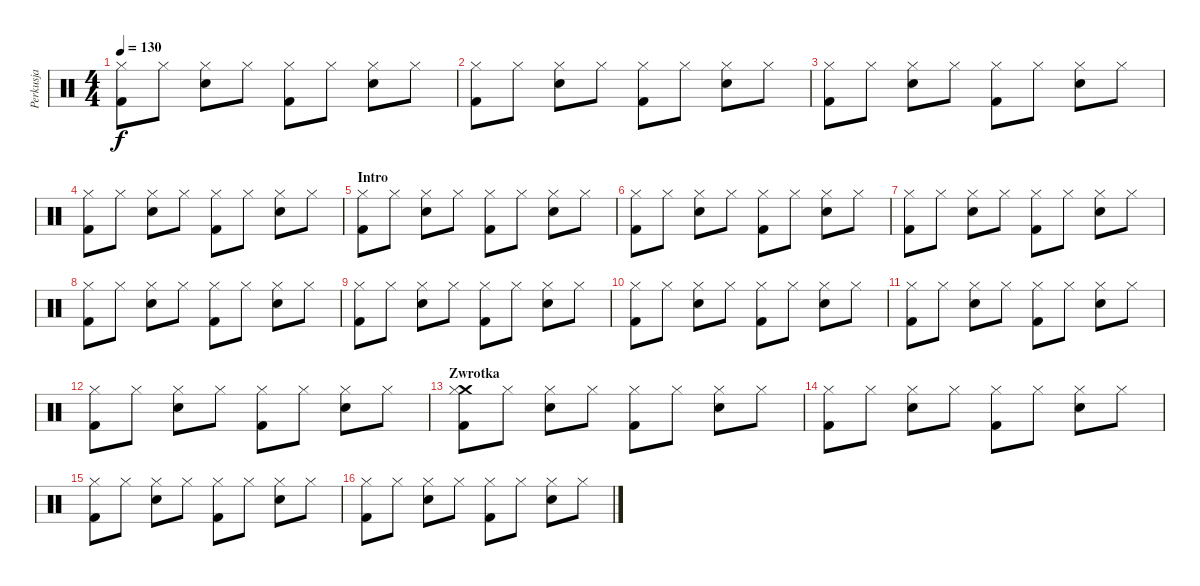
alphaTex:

\track ("Perkusja" "Perkusja") {instrument percussion}
\staff {score}
\articulation defaults
\ts (4 4)
\tempo 130
\clef neutral
\ks c
("Hi-Hat (closed)" "Kick (hit) 2").8{dy f} "Hi-Hat (closed)".8 ("Hi-Hat (closed)" "Electric Snare (hit)").8 "Hi-Hat (closed)".8 ("Hi-Hat (closed)" "Kick (hit) 2").8 "Hi-Hat (closed)".8 ("Hi-Hat (closed)" "Electric Snare (hit)").8 "Hi-Hat (closed)".8 |
("Hi-Hat (closed)" "Kick (hit) 2").8 "Hi-Hat (closed)".8 ("Hi-Hat (closed)" "Electric Snare (hit)").8 "Hi-Hat (closed)".8 ("Hi-Hat (closed)" "Kick (hit) 2").8 "Hi-Hat (closed)".8 ("Hi-Hat (closed)" "Electric Snare (hit)").8 "Hi-Hat (closed)".8 |
("Hi-Hat (closed)" "Kick (hit) 2").8 "Hi-Hat (closed)".8 ("Hi-Hat (closed)" "Electric Snare (hit)").8 "Hi-Hat (closed)".8 ("Hi-Hat (closed)" "Kick (hit) 2").8 "Hi-Hat (closed)".8 ("Hi-Hat (closed)" "Electric Snare (hit)").8 "Hi-Hat (closed)".8 |
("Hi-Hat (closed)" "Kick (hit) 2").8 "Hi-Hat (closed)".8 ("Hi-Hat (closed)" "Electric Snare (hit)").8 "Hi-Hat (closed)".8 ("Hi-Hat (closed)" "Kick (hit) 2").8 "Hi-Hat (closed)".8 ("Hi-Hat (closed)" "Electric Snare (hit)").8 "Hi-Hat (closed)".8 |
\section ("" "Intro")
("Hi-Hat (closed)" "Kick (hit) 2").8 "Hi-Hat (closed)".8 ("Hi-Hat (closed)" "Electric Snare (hit)").8 "Hi-Hat (closed)".8 ("Hi-Hat (closed)" "Kick (hit) 2").8 "Hi-Hat (closed)".8 ("Hi-Hat (closed)" "Electric Snare (hit)").8 "Hi-Hat (closed)".8 |
("Hi-Hat (closed)" "Kick (hit) 2").8 "Hi-Hat (closed)".8 ("Hi-Hat (closed)" "Electric Snare (hit)").8 "Hi-Hat (closed)".8 ("Hi-Hat (closed)" "Kick (hit) 2").8 "Hi-Hat (closed)".8 ("Hi-Hat (closed)" "Electric Snare (hit)").8 "Hi-Hat (closed)".8 |
("Hi-Hat (closed)" "Kick (hit) 2").8 "Hi-Hat (closed)".8 ("Hi-Hat (closed)" "Electric Snare (hit)").8 "Hi-Hat (closed)".8 ("Hi-Hat (closed)" "Kick (hit) 2").8 "Hi-Hat (closed)".8 ("Hi-Hat (closed)" "Electric Snare (hit)").8 "Hi-Hat (closed)".8 |
("Hi-Hat (closed)" "Kick (hit) 2").8 "Hi-Hat (closed)".8 ("Hi-Hat (closed)" "Electric Snare (hit)").8 "Hi-Hat (closed)".8 ("Hi-Hat (closed)" "Kick (hit) 2").8 "Hi-Hat (closed)".8 ("Hi-Hat (closed)" "Electric Snare (hit)").8 "Hi-Hat (closed)".8 |
("Hi-Hat (closed)" "Kick (hit) 2").8 "Hi-Hat (closed)".8 ("Hi-Hat (closed)" "Electric Snare (hit)").8 "Hi-Hat (closed)".8 ("Hi-Hat (closed)" "Kick (hit) 2").8 "Hi-Hat (closed)".8 ("Hi-Hat (closed)" "Electric Snare (hit)").8 "Hi-Hat (closed)".8 |
("Hi-Hat (closed)" "Kick (hit) 2").8 "Hi-Hat (closed)".8 ("Hi-Hat (closed)" "Electric Snare (hit)").8 "Hi-Hat (closed)".8 ("Hi-Hat (closed)" "Kick (hit) 2").8 "Hi-Hat (closed)".8 ("Hi-Hat (closed)" "Electric Snare (hit)").8 "Hi-Hat (closed)".8 |
("Hi-Hat (closed)" "Kick (hit) 2").8 "Hi-Hat (closed)".8 ("Hi-Hat (closed)" "Electric Snare (hit)").8 "Hi-Hat (closed)".8 ("Hi-Hat (closed)" "Kick (hit) 2").8 "Hi-Hat (closed)".8 ("Hi-Hat (closed)" "Electric Snare (hit)").8 "Hi-Hat (closed)".8 |
("Hi-Hat (closed)" "Kick (hit) 2").8 "Hi-Hat (closed)".8 ("Hi-Hat (closed)" "Electric Snare (hit)").8 "Hi-Hat (closed)".8 ("Hi-Hat (closed)" "Kick (hit) 2").8 "Hi-Hat (closed)".8 ("Hi-Hat (closed)" "Electric Snare (hit)").8 "Hi-Hat (closed)".8 |
\section ("" "Zwrotka")
("Crash medium (hit)" "Hi-Hat (closed)" "Kick (hit) 2").8 "Hi-Hat (closed)".8 ("Hi-Hat (closed)" "Electric Snare (hit)").8 "Hi-Hat (closed)".8 ("Hi-Hat (closed)" "Kick (hit) 2").8 "Hi-Hat (closed)".8 ("Hi-Hat (closed)" "Electric Snare (hit)").8 "Hi-Hat (closed)".8 |
("Hi-Hat (closed)" "Kick (hit) 2").8 "Hi-Hat (closed)".8 ("Hi-Hat (closed)" "Electric Snare (hit)").8 "Hi-Hat (closed)".8 ("Hi-Hat (closed)" "Kick (hit) 2").8 "Hi-Hat (closed)".8 ("Hi-Hat (closed)" "Electric Snare (hit)").8 "Hi-Hat (closed)".8 |
("Hi-Hat (closed)" "Kick (hit) 2").8 "Hi-Hat (closed)".8 ("Hi-Hat (closed)" "Electric Snare (hit)").8 "Hi-Hat (closed)".8 ("Hi-Hat (closed)" "Kick (hit) 2").8 "Hi-Hat (closed)".8 ("Hi-Hat (closed)" "Electric Snare (hit)").8 "Hi-Hat (closed)".8 |
("Hi-Hat (closed)" "Kick (hit) 2").8 "Hi-Hat (closed)".8 ("Hi-Hat (closed)" "Electric Snare (hit)").8 "Hi-Hat (closed)".8 ("Hi-Hat (closed)" "Kick (hit) 2").8 "Hi-Hat (closed)".8 ("Hi-Hat (closed)" "Electric Snare (hit)").8 "Hi-Hat (closed)".8
